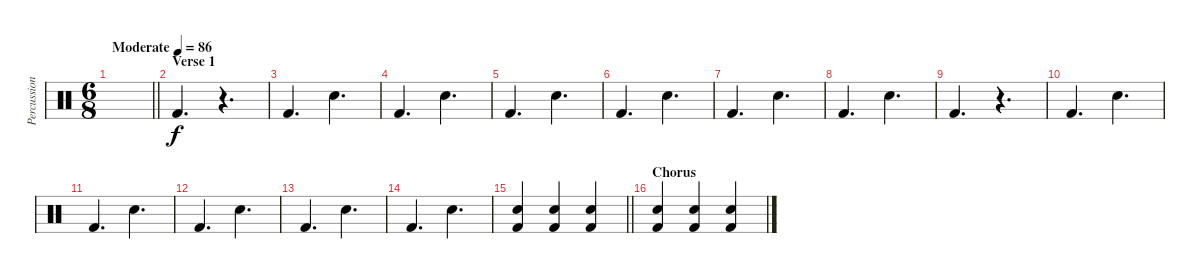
\track ("Percussion" "Percussion") {instrument percussion}
\staff {score}
\articulation defaults
\ts (6 8)
\tempo (86 "Moderate")
\clef neutral
\barLineRight lightlight
\ks c
|
\section ("" "Verse 1")
"Kick (hit) 2".4{d} r.4{d} |
"Kick (hit) 2".4{d} "Snare (hit) 2".4{d} |
"Kick (hit) 2".4{d} "Snare (hit) 2".4{d} |
"Kick (hit) 2".4{d} "Snare (hit) 2".4{d} |
"Kick (hit) 2".4{d} "Snare (hit) 2".4{d} |
"Kick (hit) 2".4{d} "Snare (hit) 2".4{d} |
"Kick (hit) 2".4{d} "Snare (hit) 2".4{d} |
"Kick (hit) 2".4{d} r.4{d} |
"Kick (hit) 2".4{d} "Snare (hit) 2".4{d} |
"Kick (hit) 2".4{d} "Snare (hit) 2".4{d} |
"Kick (hit) 2".4{d} "Snare (hit) 2".4{d} |
"Kick (hit) 2".4{d} "Snare (hit) 2".4{d} |
"Kick (hit) 2".4{d} "Snare (hit) 2".4{d} |
\barLineRight lightlight
("Snare (hit) 2" "Kick (hit) 2").4 ("Snare (hit) 2" "Kick (hit) 2").4 ("Snare (hit) 2" "Kick (hit) 2").4 |
\section ("" "Chorus")
("Snare (hit) 2" "Kick (hit) 2").4 ("Snare (hit) 2" "Kick (hit) 2").4 ("Snare (hit) 2" "Kick (hit) 2").4
